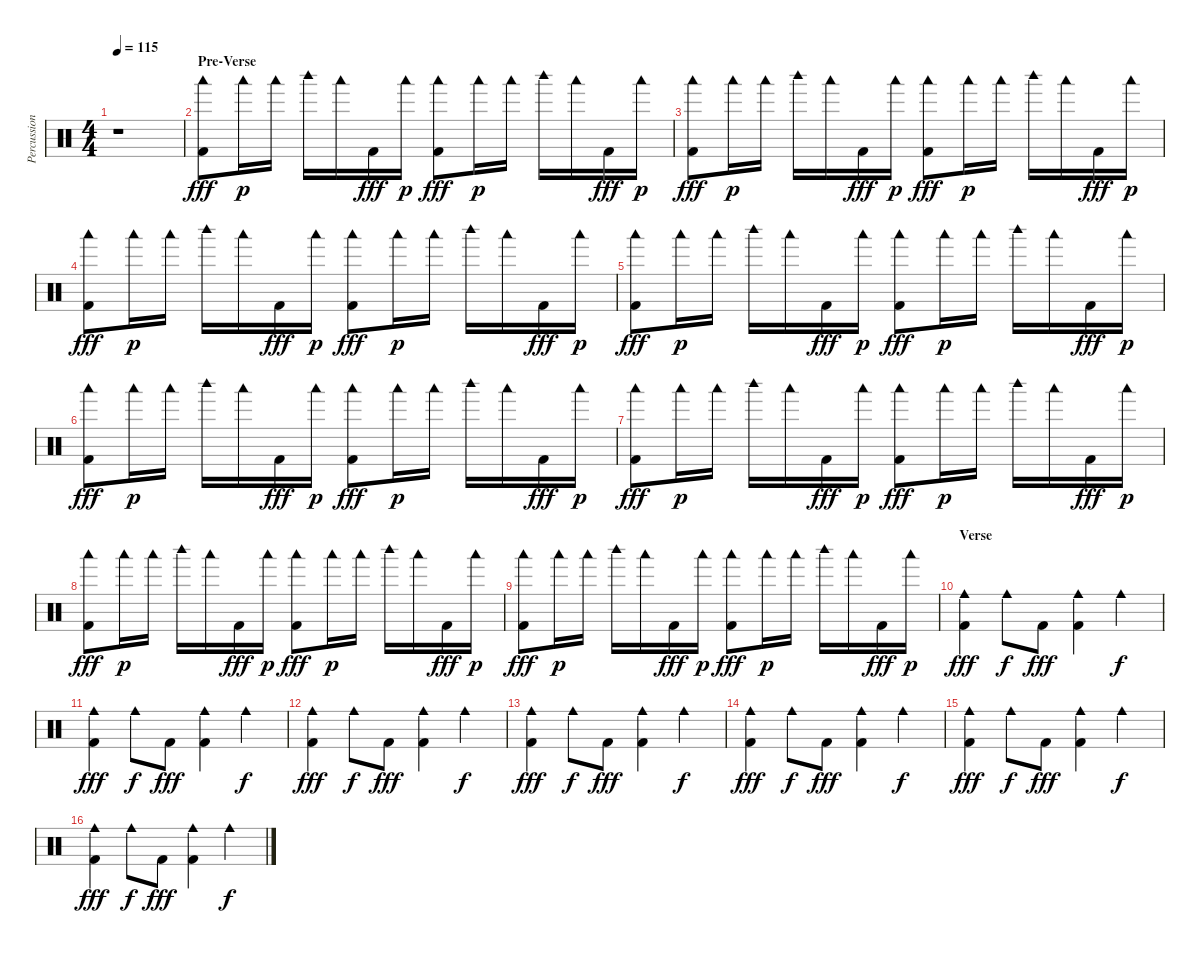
\track ("Percussion/Booster" "Percussion") {instrument percussion}
\staff {score}
\articulation defaults
\ts (4 4)
\tempo 115
\clef neutral
\ks c
r.1{dy fff} |
\section ("" "Pre-Verse")
("Woodblock low (hit)" "Kick (hit) 2").8 "Woodblock low (hit)".16{dy p} "Woodblock low (hit)".16 "Woodblock high (hit)".16 "Woodblock low (hit)".16 "Kick (hit) 2".16{dy fff} "Woodblock low (hit)".16{dy p} ("Woodblock low (hit)" "Kick (hit) 2").8{dy fff} "Woodblock low (hit)".16{dy p} "Woodblock low (hit)".16 "Woodblock high (hit)".16 "Woodblock low (hit)".16 "Kick (hit) 2".16{dy fff} "Woodblock low (hit)".16{dy p} |
("Woodblock low (hit)" "Kick (hit) 2").8{dy fff} "Woodblock low (hit)".16{dy p} "Woodblock low (hit)".16 "Woodblock high (hit)".16 "Woodblock low (hit)".16 "Kick (hit) 2".16{dy fff} "Woodblock low (hit)".16{dy p} ("Woodblock low (hit)" "Kick (hit) 2").8{dy fff} "Woodblock low (hit)".16{dy p} "Woodblock low (hit)".16 "Woodblock high (hit)".16 "Woodblock low (hit)".16 "Kick (hit) 2".16{dy fff} "Woodblock low (hit)".16{dy p} |
("Woodblock low (hit)" "Kick (hit) 2").8{dy fff} "Woodblock low (hit)".16{dy p} "Woodblock low (hit)".16 "Woodblock high (hit)".16 "Woodblock low (hit)".16 "Kick (hit) 2".16{dy fff} "Woodblock low (hit)".16{dy p} ("Woodblock low (hit)" "Kick (hit) 2").8{dy fff} "Woodblock low (hit)".16{dy p} "Woodblock low (hit)".16 "Woodblock high (hit)".16 "Woodblock low (hit)".16 "Kick (hit) 2".16{dy fff} "Woodblock low (hit)".16{dy p} |
("Woodblock low (hit)" "Kick (hit) 2").8{dy fff} "Woodblock low (hit)".16{dy p} "Woodblock low (hit)".16 "Woodblock high (hit)".16 "Woodblock low (hit)".16 "Kick (hit) 2".16{dy fff} "Woodblock low (hit)".16{dy p} ("Woodblock low (hit)" "Kick (hit) 2").8{dy fff} "Woodblock low (hit)".16{dy p} "Woodblock low (hit)".16 "Woodblock high (hit)".16 "Woodblock low (hit)".16 "Kick (hit) 2".16{dy fff} "Woodblock low (hit)".16{dy p} |
("Woodblock low (hit)" "Kick (hit) 2").8{dy fff} "Woodblock low (hit)".16{dy p} "Woodblock low (hit)".16 "Woodblock high (hit)".16 "Woodblock low (hit)".16 "Kick (hit) 2".16{dy fff} "Woodblock low (hit)".16{dy p} ("Woodblock low (hit)" "Kick (hit) 2").8{dy fff} "Woodblock low (hit)".16{dy p} "Woodblock low (hit)".16 "Woodblock high (hit)".16 "Woodblock low (hit)".16 "Kick (hit) 2".16{dy fff} "Woodblock low (hit)".16{dy p} |
("Woodblock low (hit)" "Kick (hit) 2").8{dy fff} "Woodblock low (hit)".16{dy p} "Woodblock low (hit)".16 "Woodblock high (hit)".16 "Woodblock low (hit)".16 "Kick (hit) 2".16{dy fff} "Woodblock low (hit)".16{dy p} ("Woodblock low (hit)" "Kick (hit) 2").8{dy fff} "Woodblock low (hit)".16{dy p} "Woodblock low (hit)".16 "Woodblock high (hit)".16 "Woodblock low (hit)".16 "Kick (hit) 2".16{dy fff} "Woodblock low (hit)".16{dy p} |
("Woodblock low (hit)" "Kick (hit) 2").8{dy fff} "Woodblock low (hit)".16{dy p} "Woodblock low (hit)".16 "Woodblock high (hit)".16 "Woodblock low (hit)".16 "Kick (hit) 2".16{dy fff} "Woodblock low (hit)".16{dy p} ("Woodblock low (hit)" "Kick (hit) 2").8{dy fff} "Woodblock low (hit)".16{dy p} "Woodblock low (hit)".16 "Woodblock high (hit)".16 "Woodblock low (hit)".16 "Kick (hit) 2".16{dy fff} "Woodblock low (hit)".16{dy p} |
("Woodblock low (hit)" "Kick (hit) 2").8{dy fff} "Woodblock low (hit)".16{dy p} "Woodblock low (hit)".16 "Woodblock high (hit)".16 "Woodblock low (hit)".16 "Kick (hit) 2".16{dy fff} "Woodblock low (hit)".16{dy p} ("Woodblock low (hit)" "Kick (hit) 2").8{dy fff} "Woodblock low (hit)".16{dy p} "Woodblock low (hit)".16 "Woodblock high (hit)".16 "Woodblock low (hit)".16 "Kick (hit) 2".16{dy fff} "Woodblock low (hit)".16{dy p} |
\section ("" "Verse")
("Cowbell medium (hit)" "Kick (hit) 2").4{dy fff} "Cowbell medium (hit)".8{dy f} "Kick (hit) 2".8{dy fff} ("Cowbell medium (hit)" "Kick (hit) 2").4 "Cowbell medium (hit)".4{dy f} |
("Cowbell medium (hit)" "Kick (hit) 2").4{dy fff} "Cowbell medium (hit)".8{dy f} "Kick (hit) 2".8{dy fff} ("Cowbell medium (hit)" "Kick (hit) 2").4 "Cowbell medium (hit)".4{dy f} |
("Cowbell medium (hit)" "Kick (hit) 2").4{dy fff} "Cowbell medium (hit)".8{dy f} "Kick (hit) 2".8{dy fff} ("Cowbell medium (hit)" "Kick (hit) 2").4 "Cowbell medium (hit)".4{dy f} |
("Cowbell medium (hit)" "Kick (hit) 2").4{dy fff} "Cowbell medium (hit)".8{dy f} "Kick (hit) 2".8{dy fff} ("Cowbell medium (hit)" "Kick (hit) 2").4 "Cowbell medium (hit)".4{dy f} |
("Cowbell medium (hit)" "Kick (hit) 2").4{dy fff} "Cowbell medium (hit)".8{dy f} "Kick (hit) 2".8{dy fff} ("Cowbell medium (hit)" "Kick (hit) 2").4 "Cowbell medium (hit)".4{dy f} |
("Cowbell medium (hit)" "Kick (hit) 2").4{dy fff} "Cowbell medium (hit)".8{dy f} "Kick (hit) 2".8{dy fff} ("Cowbell medium (hit)" "Kick (hit) 2").4 "Cowbell medium (hit)".4{dy f} |
("Cowbell medium (hit)" "Kick (hit) 2").4{dy fff} "Cowbell medium (hit)".8{dy f} "Kick (hit) 2".8{dy fff} ("Cowbell medium (hit)" "Kick (hit) 2").4 "Cowbell medium (hit)".4{dy f}
